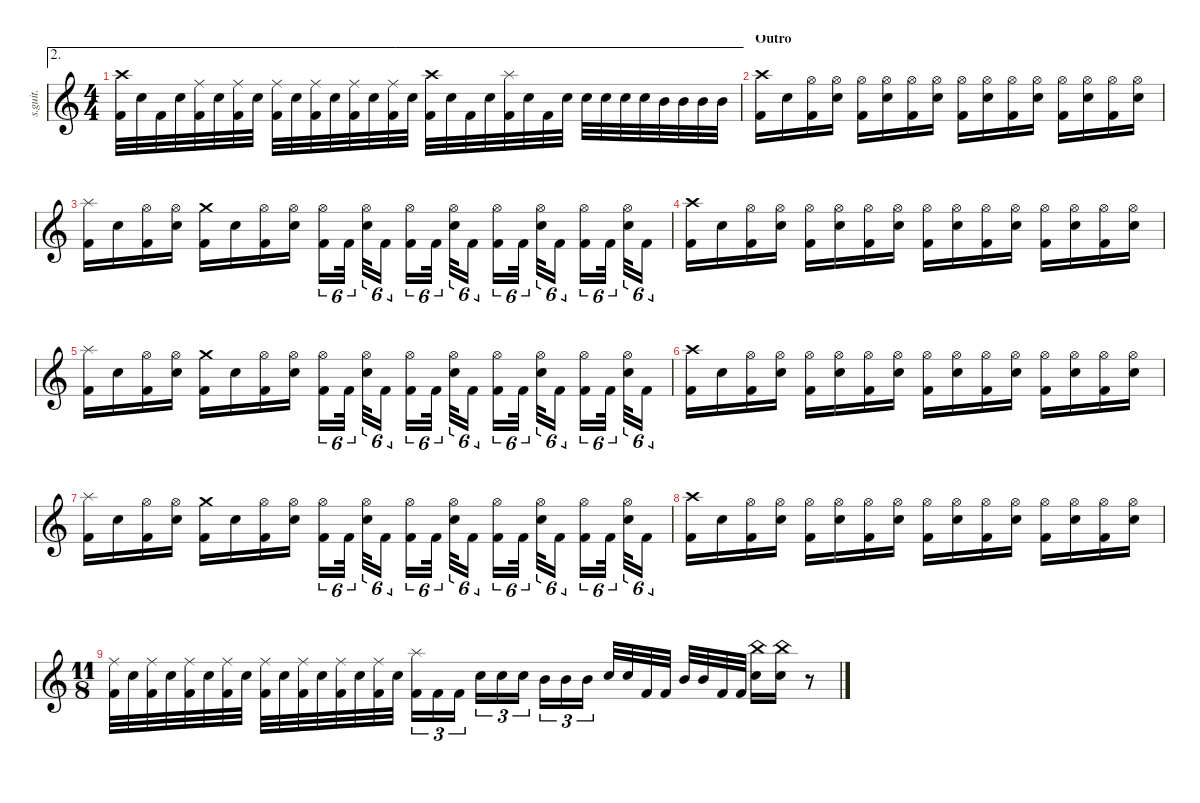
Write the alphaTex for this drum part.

\defaultSystemsLayout 4
\hideDynamics
\bracketExtendMode nobrackets
\track ("Percussion" "s.guit.") {instrument percussion}
\staff {score}
\articulation defaults
\ae 2
\ts (4 4)
\tempo (120 hide)
\clef g2
\ks c
("Kick (hit) 2" "Crash high (hit)").32{lyrics (0 "") lyrics (1 "") lyrics (2 "") lyrics (3 "") lyrics (4 "") dy f} "Snare (hit) 2".32{lyrics (0 "") lyrics (1 "") lyrics (2 "") lyrics (3 "") lyrics (4 "")} "Kick (hit) 2".32{lyrics (0 "") lyrics (1 "") lyrics (2 "") lyrics (3 "") lyrics (4 "")} "Snare (hit) 2".32{lyrics (0 "") lyrics (1 "") lyrics (2 "") lyrics (3 "") lyrics (4 "")} ("Ride (middle)" "Kick (hit) 2").32{lyrics (0 "") lyrics (1 "") lyrics (2 "") lyrics (3 "") lyrics (4 "")} "Snare (hit) 2".32{lyrics (0 "") lyrics (1 "") lyrics (2 "") lyrics (3 "") lyrics (4 "")} ("Ride (middle)" "Kick (hit) 2").32{lyrics (0 "") lyrics (1 "") lyrics (2 "") lyrics (3 "") lyrics (4 "")} "Snare (hit) 2".32{lyrics (0 "") lyrics (1 "") lyrics (2 "") lyrics (3 "") lyrics (4 "")} ("Ride (middle)" "Kick (hit) 2").32{lyrics (0 "") lyrics (1 "") lyrics (2 "") lyrics (3 "") lyrics (4 "")} "Snare (hit) 2".32{lyrics (0 "") lyrics (1 "") lyrics (2 "") lyrics (3 "") lyrics (4 "")} ("Ride (middle)" "Kick (hit) 2").32{lyrics (0 "") lyrics (1 "") lyrics (2 "") lyrics (3 "") lyrics (4 "")} "Snare (hit) 2".32{lyrics (0 "") lyrics (1 "") lyrics (2 "") lyrics (3 "") lyrics (4 "")} ("Ride (middle)" "Kick (hit) 2").32{lyrics (0 "") lyrics (1 "") lyrics (2 "") lyrics (3 "") lyrics (4 "")} "Snare (hit) 2".32{lyrics (0 "") lyrics (1 "") lyrics (2 "") lyrics (3 "") lyrics (4 "")} ("Ride (middle)" "Kick (hit) 2").32{lyrics (0 "") lyrics (1 "") lyrics (2 "") lyrics (3 "") lyrics (4 "")} "Snare (hit) 2".32{lyrics (0 "") lyrics (1 "") lyrics (2 "") lyrics (3 "") lyrics (4 "")} ("Kick (hit) 2" "Crash high (hit)").32{lyrics (0 "") lyrics (1 "") lyrics (2 "") lyrics (3 "") lyrics (4 "")} "Snare (hit) 2".32{lyrics (0 "") lyrics (1 "") lyrics (2 "") lyrics (3 "") lyrics (4 "")} "Kick (hit) 2".32{lyrics (0 "") lyrics (1 "") lyrics (2 "") lyrics (3 "") lyrics (4 "")} "Snare (hit) 2".32{lyrics (0 "") lyrics (1 "") lyrics (2 "") lyrics (3 "") lyrics (4 "")} ("Kick (hit) 2" "Splash (hit)").32{lyrics (0 "") lyrics (1 "") lyrics (2 "") lyrics (3 "") lyrics (4 "")} "Snare (hit) 2".32{lyrics (0 "") lyrics (1 "") lyrics (2 "") lyrics (3 "") lyrics (4 "")} "Kick (hit) 2".32{lyrics (0 "") lyrics (1 "") lyrics (2 "") lyrics (3 "") lyrics (4 "")} "Snare (hit) 2".32{lyrics (0 "") lyrics (1 "") lyrics (2 "") lyrics (3 "") lyrics (4 "")} "Snare (hit) 2".32{lyrics (0 "") lyrics (1 "") lyrics (2 "") lyrics (3 "") lyrics (4 "")} "Snare (hit) 2".32{lyrics (0 "") lyrics (1 "") lyrics (2 "") lyrics (3 "") lyrics (4 "")} "Snare (hit) 2".32{lyrics (0 "") lyrics (1 "") lyrics (2 "") lyrics (3 "") lyrics (4 "")} "Snare (hit) 2".32{lyrics (0 "") lyrics (1 "") lyrics (2 "") lyrics (3 "") lyrics (4 "")} "Mid Tom (hit)".32{lyrics (0 "") lyrics (1 "") lyrics (2 "") lyrics (3 "") lyrics (4 "")} "Mid Tom (hit)".32{lyrics (0 "") lyrics (1 "") lyrics (2 "") lyrics (3 "") lyrics (4 "")} "Mid Tom (hit)".32{lyrics (0 "") lyrics (1 "") lyrics (2 "") lyrics (3 "") lyrics (4 "")} "Mid Tom (hit)".32{lyrics (0 "") lyrics (1 "") lyrics (2 "") lyrics (3 "") lyrics (4 "")} |
\section ("" "Outro")
("Kick (hit) 2" "Crash high (hit)").16{lyrics (0 "") lyrics (1 "") lyrics (2 "") lyrics (3 "") lyrics (4 "")} "Snare (hit) 2".16{lyrics (0 "") lyrics (1 "") lyrics (2 "") lyrics (3 "") lyrics (4 "")} ("Hi-Hat (open)" "Kick (hit) 2").16{lyrics (0 "") lyrics (1 "") lyrics (2 "") lyrics (3 "") lyrics (4 "")} ("Hi-Hat (open)" "Snare (hit) 2").16{lyrics (0 "") lyrics (1 "") lyrics (2 "") lyrics (3 "") lyrics (4 "")} ("Hi-Hat (open)" "Kick (hit) 2").16{lyrics (0 "") lyrics (1 "") lyrics (2 "") lyrics (3 "") lyrics (4 "")} ("Hi-Hat (open)" "Snare (hit) 2").16{lyrics (0 "") lyrics (1 "") lyrics (2 "") lyrics (3 "") lyrics (4 "")} ("Hi-Hat (open)" "Kick (hit) 2").16{lyrics (0 "") lyrics (1 "") lyrics (2 "") lyrics (3 "") lyrics (4 "")} ("Hi-Hat (open)" "Snare (hit) 2").16{lyrics (0 "") lyrics (1 "") lyrics (2 "") lyrics (3 "") lyrics (4 "")} ("Hi-Hat (open)" "Kick (hit) 2").16{lyrics (0 "") lyrics (1 "") lyrics (2 "") lyrics (3 "") lyrics (4 "")} ("Hi-Hat (open)" "Snare (hit) 2").16{lyrics (0 "") lyrics (1 "") lyrics (2 "") lyrics (3 "") lyrics (4 "")} ("Hi-Hat (open)" "Kick (hit) 2").16{lyrics (0 "") lyrics (1 "") lyrics (2 "") lyrics (3 "") lyrics (4 "")} ("Hi-Hat (open)" "Snare (hit) 2").16{lyrics (0 "") lyrics (1 "") lyrics (2 "") lyrics (3 "") lyrics (4 "")} ("Hi-Hat (open)" "Kick (hit) 2").16{lyrics (0 "") lyrics (1 "") lyrics (2 "") lyrics (3 "") lyrics (4 "")} ("Hi-Hat (open)" "Snare (hit) 2").16{lyrics (0 "") lyrics (1 "") lyrics (2 "") lyrics (3 "") lyrics (4 "")} ("Hi-Hat (open)" "Kick (hit) 2").16{lyrics (0 "") lyrics (1 "") lyrics (2 "") lyrics (3 "") lyrics (4 "")} ("Hi-Hat (open)" "Snare (hit) 2").16{lyrics (0 "") lyrics (1 "") lyrics (2 "") lyrics (3 "") lyrics (4 "")} |
("Splash (hit)" "Kick (hit) 2").16{lyrics (0 "") lyrics (1 "") lyrics (2 "") lyrics (3 "") lyrics (4 "")} "Snare (hit) 2".16{lyrics (0 "") lyrics (1 "") lyrics (2 "") lyrics (3 "") lyrics (4 "")} ("Hi-Hat (open)" "Kick (hit) 2").16{lyrics (0 "") lyrics (1 "") lyrics (2 "") lyrics (3 "") lyrics (4 "")} ("Hi-Hat (open)" "Snare (hit) 2").16{lyrics (0 "") lyrics (1 "") lyrics (2 "") lyrics (3 "") lyrics (4 "")} ("Crash medium (hit)" "Kick (hit) 2").16{lyrics (0 "") lyrics (1 "") lyrics (2 "") lyrics (3 "") lyrics (4 "")} "Snare (hit) 2".16{lyrics (0 "") lyrics (1 "") lyrics (2 "") lyrics (3 "") lyrics (4 "")} ("Hi-Hat (open)" "Kick (hit) 2").16{lyrics (0 "") lyrics (1 "") lyrics (2 "") lyrics (3 "") lyrics (4 "")} ("Hi-Hat (open)" "Snare (hit) 2").16{lyrics (0 "") lyrics (1 "") lyrics (2 "") lyrics (3 "") lyrics (4 "")} ("Hi-Hat (open)" "Kick (hit) 2").16{tu (6 4) lyrics (0 "") lyrics (1 "") lyrics (2 "") lyrics (3 "") lyrics (4 "")} "Kick (hit) 2".32{tu (6 4) lyrics (0 "") lyrics (1 "") lyrics (2 "") lyrics (3 "") lyrics (4 "")} ("Hi-Hat (open)" "Snare (hit) 2").32{tu (6 4) lyrics (0 "") lyrics (1 "") lyrics (2 "") lyrics (3 "") lyrics (4 "")} "Kick (hit) 2".16{tu (6 4) lyrics (0 "") lyrics (1 "") lyrics (2 "") lyrics (3 "") lyrics (4 "")} ("Hi-Hat (open)" "Kick (hit) 2").16{tu (6 4) lyrics (0 "") lyrics (1 "") lyrics (2 "") lyrics (3 "") lyrics (4 "")} "Kick (hit) 2".32{tu (6 4) lyrics (0 "") lyrics (1 "") lyrics (2 "") lyrics (3 "") lyrics (4 "")} ("Hi-Hat (open)" "Snare (hit) 2").32{tu (6 4) lyrics (0 "") lyrics (1 "") lyrics (2 "") lyrics (3 "") lyrics (4 "")} "Kick (hit) 2".16{tu (6 4) lyrics (0 "") lyrics (1 "") lyrics (2 "") lyrics (3 "") lyrics (4 "")} ("Hi-Hat (open)" "Kick (hit) 2").16{tu (6 4) lyrics (0 "") lyrics (1 "") lyrics (2 "") lyrics (3 "") lyrics (4 "")} "Kick (hit) 2".32{tu (6 4) lyrics (0 "") lyrics (1 "") lyrics (2 "") lyrics (3 "") lyrics (4 "")} ("Hi-Hat (open)" "Snare (hit) 2").32{tu (6 4) lyrics (0 "") lyrics (1 "") lyrics (2 "") lyrics (3 "") lyrics (4 "")} "Kick (hit) 2".16{tu (6 4) lyrics (0 "") lyrics (1 "") lyrics (2 "") lyrics (3 "") lyrics (4 "")} ("Hi-Hat (open)" "Kick (hit) 2").16{tu (6 4) lyrics (0 "") lyrics (1 "") lyrics (2 "") lyrics (3 "") lyrics (4 "")} "Kick (hit) 2".32{tu (6 4) lyrics (0 "") lyrics (1 "") lyrics (2 "") lyrics (3 "") lyrics (4 "")} ("Hi-Hat (open)" "Snare (hit) 2").32{tu (6 4) lyrics (0 "") lyrics (1 "") lyrics (2 "") lyrics (3 "") lyrics (4 "")} "Kick (hit) 2".16{tu (6 4) lyrics (0 "") lyrics (1 "") lyrics (2 "") lyrics (3 "") lyrics (4 "")} |
("Kick (hit) 2" "Crash high (hit)").16{lyrics (0 "") lyrics (1 "") lyrics (2 "") lyrics (3 "") lyrics (4 "")} "Snare (hit) 2".16{lyrics (0 "") lyrics (1 "") lyrics (2 "") lyrics (3 "") lyrics (4 "")} ("Hi-Hat (open)" "Kick (hit) 2").16{lyrics (0 "") lyrics (1 "") lyrics (2 "") lyrics (3 "") lyrics (4 "")} ("Hi-Hat (open)" "Snare (hit) 2").16{lyrics (0 "") lyrics (1 "") lyrics (2 "") lyrics (3 "") lyrics (4 "")} ("Hi-Hat (open)" "Kick (hit) 2").16{lyrics (0 "") lyrics (1 "") lyrics (2 "") lyrics (3 "") lyrics (4 "")} ("Hi-Hat (open)" "Snare (hit) 2").16{lyrics (0 "") lyrics (1 "") lyrics (2 "") lyrics (3 "") lyrics (4 "")} ("Hi-Hat (open)" "Kick (hit) 2").16{lyrics (0 "") lyrics (1 "") lyrics (2 "") lyrics (3 "") lyrics (4 "")} ("Hi-Hat (open)" "Snare (hit) 2").16{lyrics (0 "") lyrics (1 "") lyrics (2 "") lyrics (3 "") lyrics (4 "")} ("Hi-Hat (open)" "Kick (hit) 2").16{lyrics (0 "") lyrics (1 "") lyrics (2 "") lyrics (3 "") lyrics (4 "")} ("Hi-Hat (open)" "Snare (hit) 2").16{lyrics (0 "") lyrics (1 "") lyrics (2 "") lyrics (3 "") lyrics (4 "")} ("Hi-Hat (open)" "Kick (hit) 2").16{lyrics (0 "") lyrics (1 "") lyrics (2 "") lyrics (3 "") lyrics (4 "")} ("Hi-Hat (open)" "Snare (hit) 2").16{lyrics (0 "") lyrics (1 "") lyrics (2 "") lyrics (3 "") lyrics (4 "")} ("Hi-Hat (open)" "Kick (hit) 2").16{lyrics (0 "") lyrics (1 "") lyrics (2 "") lyrics (3 "") lyrics (4 "")} ("Hi-Hat (open)" "Snare (hit) 2").16{lyrics (0 "") lyrics (1 "") lyrics (2 "") lyrics (3 "") lyrics (4 "")} ("Hi-Hat (open)" "Kick (hit) 2").16{lyrics (0 "") lyrics (1 "") lyrics (2 "") lyrics (3 "") lyrics (4 "")} ("Hi-Hat (open)" "Snare (hit) 2").16{lyrics (0 "") lyrics (1 "") lyrics (2 "") lyrics (3 "") lyrics (4 "")} |
("Splash (hit)" "Kick (hit) 2").16{lyrics (0 "") lyrics (1 "") lyrics (2 "") lyrics (3 "") lyrics (4 "")} "Snare (hit) 2".16{lyrics (0 "") lyrics (1 "") lyrics (2 "") lyrics (3 "") lyrics (4 "")} ("Hi-Hat (open)" "Kick (hit) 2").16{lyrics (0 "") lyrics (1 "") lyrics (2 "") lyrics (3 "") lyrics (4 "")} ("Hi-Hat (open)" "Snare (hit) 2").16{lyrics (0 "") lyrics (1 "") lyrics (2 "") lyrics (3 "") lyrics (4 "")} ("Crash medium (hit)" "Kick (hit) 2").16{lyrics (0 "") lyrics (1 "") lyrics (2 "") lyrics (3 "") lyrics (4 "")} "Snare (hit) 2".16{lyrics (0 "") lyrics (1 "") lyrics (2 "") lyrics (3 "") lyrics (4 "")} ("Hi-Hat (open)" "Kick (hit) 2").16{lyrics (0 "") lyrics (1 "") lyrics (2 "") lyrics (3 "") lyrics (4 "")} ("Hi-Hat (open)" "Snare (hit) 2").16{lyrics (0 "") lyrics (1 "") lyrics (2 "") lyrics (3 "") lyrics (4 "")} ("Hi-Hat (open)" "Kick (hit) 2").16{tu (6 4) lyrics (0 "") lyrics (1 "") lyrics (2 "") lyrics (3 "") lyrics (4 "")} "Kick (hit) 2".32{tu (6 4) lyrics (0 "") lyrics (1 "") lyrics (2 "") lyrics (3 "") lyrics (4 "")} ("Hi-Hat (open)" "Snare (hit) 2").32{tu (6 4) lyrics (0 "") lyrics (1 "") lyrics (2 "") lyrics (3 "") lyrics (4 "")} "Kick (hit) 2".16{tu (6 4) lyrics (0 "") lyrics (1 "") lyrics (2 "") lyrics (3 "") lyrics (4 "")} ("Hi-Hat (open)" "Kick (hit) 2").16{tu (6 4) lyrics (0 "") lyrics (1 "") lyrics (2 "") lyrics (3 "") lyrics (4 "")} "Kick (hit) 2".32{tu (6 4) lyrics (0 "") lyrics (1 "") lyrics (2 "") lyrics (3 "") lyrics (4 "")} ("Hi-Hat (open)" "Snare (hit) 2").32{tu (6 4) lyrics (0 "") lyrics (1 "") lyrics (2 "") lyrics (3 "") lyrics (4 "")} "Kick (hit) 2".16{tu (6 4) lyrics (0 "") lyrics (1 "") lyrics (2 "") lyrics (3 "") lyrics (4 "")} ("Hi-Hat (open)" "Kick (hit) 2").16{tu (6 4) lyrics (0 "") lyrics (1 "") lyrics (2 "") lyrics (3 "") lyrics (4 "")} "Kick (hit) 2".32{tu (6 4) lyrics (0 "") lyrics (1 "") lyrics (2 "") lyrics (3 "") lyrics (4 "")} ("Hi-Hat (open)" "Snare (hit) 2").32{tu (6 4) lyrics (0 "") lyrics (1 "") lyrics (2 "") lyrics (3 "") lyrics (4 "")} "Kick (hit) 2".16{tu (6 4) lyrics (0 "") lyrics (1 "") lyrics (2 "") lyrics (3 "") lyrics (4 "")} ("Hi-Hat (open)" "Kick (hit) 2").16{tu (6 4) lyrics (0 "") lyrics (1 "") lyrics (2 "") lyrics (3 "") lyrics (4 "")} "Kick (hit) 2".32{tu (6 4) lyrics (0 "") lyrics (1 "") lyrics (2 "") lyrics (3 "") lyrics (4 "")} ("Hi-Hat (open)" "Snare (hit) 2").32{tu (6 4) lyrics (0 "") lyrics (1 "") lyrics (2 "") lyrics (3 "") lyrics (4 "")} "Kick (hit) 2".16{tu (6 4) lyrics (0 "") lyrics (1 "") lyrics (2 "") lyrics (3 "") lyrics (4 "")} |
("Kick (hit) 2" "Crash high (hit)").16{lyrics (0 "") lyrics (1 "") lyrics (2 "") lyrics (3 "") lyrics (4 "")} "Snare (hit) 2".16{lyrics (0 "") lyrics (1 "") lyrics (2 "") lyrics (3 "") lyrics (4 "")} ("Hi-Hat (open)" "Kick (hit) 2").16{lyrics (0 "") lyrics (1 "") lyrics (2 "") lyrics (3 "") lyrics (4 "")} ("Hi-Hat (open)" "Snare (hit) 2").16{lyrics (0 "") lyrics (1 "") lyrics (2 "") lyrics (3 "") lyrics (4 "")} ("Hi-Hat (open)" "Kick (hit) 2").16{lyrics (0 "") lyrics (1 "") lyrics (2 "") lyrics (3 "") lyrics (4 "")} ("Hi-Hat (open)" "Snare (hit) 2").16{lyrics (0 "") lyrics (1 "") lyrics (2 "") lyrics (3 "") lyrics (4 "")} ("Hi-Hat (open)" "Kick (hit) 2").16{lyrics (0 "") lyrics (1 "") lyrics (2 "") lyrics (3 "") lyrics (4 "")} ("Hi-Hat (open)" "Snare (hit) 2").16{lyrics (0 "") lyrics (1 "") lyrics (2 "") lyrics (3 "") lyrics (4 "")} ("Hi-Hat (open)" "Kick (hit) 2").16{lyrics (0 "") lyrics (1 "") lyrics (2 "") lyrics (3 "") lyrics (4 "")} ("Hi-Hat (open)" "Snare (hit) 2").16{lyrics (0 "") lyrics (1 "") lyrics (2 "") lyrics (3 "") lyrics (4 "")} ("Hi-Hat (open)" "Kick (hit) 2").16{lyrics (0 "") lyrics (1 "") lyrics (2 "") lyrics (3 "") lyrics (4 "")} ("Hi-Hat (open)" "Snare (hit) 2").16{lyrics (0 "") lyrics (1 "") lyrics (2 "") lyrics (3 "") lyrics (4 "")} ("Hi-Hat (open)" "Kick (hit) 2").16{lyrics (0 "") lyrics (1 "") lyrics (2 "") lyrics (3 "") lyrics (4 "")} ("Hi-Hat (open)" "Snare (hit) 2").16{lyrics (0 "") lyrics (1 "") lyrics (2 "") lyrics (3 "") lyrics (4 "")} ("Hi-Hat (open)" "Kick (hit) 2").16{lyrics (0 "") lyrics (1 "") lyrics (2 "") lyrics (3 "") lyrics (4 "")} ("Hi-Hat (open)" "Snare (hit) 2").16{lyrics (0 "") lyrics (1 "") lyrics (2 "") lyrics (3 "") lyrics (4 "")} |
("Splash (hit)" "Kick (hit) 2").16{lyrics (0 "") lyrics (1 "") lyrics (2 "") lyrics (3 "") lyrics (4 "")} "Snare (hit) 2".16{lyrics (0 "") lyrics (1 "") lyrics (2 "") lyrics (3 "") lyrics (4 "")} ("Hi-Hat (open)" "Kick (hit) 2").16{lyrics (0 "") lyrics (1 "") lyrics (2 "") lyrics (3 "") lyrics (4 "")} ("Hi-Hat (open)" "Snare (hit) 2").16{lyrics (0 "") lyrics (1 "") lyrics (2 "") lyrics (3 "") lyrics (4 "")} ("Crash medium (hit)" "Kick (hit) 2").16{lyrics (0 "") lyrics (1 "") lyrics (2 "") lyrics (3 "") lyrics (4 "")} "Snare (hit) 2".16{lyrics (0 "") lyrics (1 "") lyrics (2 "") lyrics (3 "") lyrics (4 "")} ("Hi-Hat (open)" "Kick (hit) 2").16{lyrics (0 "") lyrics (1 "") lyrics (2 "") lyrics (3 "") lyrics (4 "")} ("Hi-Hat (open)" "Snare (hit) 2").16{lyrics (0 "") lyrics (1 "") lyrics (2 "") lyrics (3 "") lyrics (4 "")} ("Hi-Hat (open)" "Kick (hit) 2").16{tu (6 4) lyrics (0 "") lyrics (1 "") lyrics (2 "") lyrics (3 "") lyrics (4 "")} "Kick (hit) 2".32{tu (6 4) lyrics (0 "") lyrics (1 "") lyrics (2 "") lyrics (3 "") lyrics (4 "")} ("Hi-Hat (open)" "Snare (hit) 2").32{tu (6 4) lyrics (0 "") lyrics (1 "") lyrics (2 "") lyrics (3 "") lyrics (4 "")} "Kick (hit) 2".16{tu (6 4) lyrics (0 "") lyrics (1 "") lyrics (2 "") lyrics (3 "") lyrics (4 "")} ("Hi-Hat (open)" "Kick (hit) 2").16{tu (6 4) lyrics (0 "") lyrics (1 "") lyrics (2 "") lyrics (3 "") lyrics (4 "")} "Kick (hit) 2".32{tu (6 4) lyrics (0 "") lyrics (1 "") lyrics (2 "") lyrics (3 "") lyrics (4 "")} ("Hi-Hat (open)" "Snare (hit) 2").32{tu (6 4) lyrics (0 "") lyrics (1 "") lyrics (2 "") lyrics (3 "") lyrics (4 "")} "Kick (hit) 2".16{tu (6 4) lyrics (0 "") lyrics (1 "") lyrics (2 "") lyrics (3 "") lyrics (4 "")} ("Hi-Hat (open)" "Kick (hit) 2").16{tu (6 4) lyrics (0 "") lyrics (1 "") lyrics (2 "") lyrics (3 "") lyrics (4 "")} "Kick (hit) 2".32{tu (6 4) lyrics (0 "") lyrics (1 "") lyrics (2 "") lyrics (3 "") lyrics (4 "")} ("Hi-Hat (open)" "Snare (hit) 2").32{tu (6 4) lyrics (0 "") lyrics (1 "") lyrics (2 "") lyrics (3 "") lyrics (4 "")} "Kick (hit) 2".16{tu (6 4) lyrics (0 "") lyrics (1 "") lyrics (2 "") lyrics (3 "") lyrics (4 "")} ("Hi-Hat (open)" "Kick (hit) 2").16{tu (6 4) lyrics (0 "") lyrics (1 "") lyrics (2 "") lyrics (3 "") lyrics (4 "")} "Kick (hit) 2".32{tu (6 4) lyrics (0 "") lyrics (1 "") lyrics (2 "") lyrics (3 "") lyrics (4 "")} ("Hi-Hat (open)" "Snare (hit) 2").32{tu (6 4) lyrics (0 "") lyrics (1 "") lyrics (2 "") lyrics (3 "") lyrics (4 "")} "Kick (hit) 2".16{tu (6 4) lyrics (0 "") lyrics (1 "") lyrics (2 "") lyrics (3 "") lyrics (4 "")} |
("Kick (hit) 2" "Crash high (hit)").16{lyrics (0 "") lyrics (1 "") lyrics (2 "") lyrics (3 "") lyrics (4 "")} "Snare (hit) 2".16{lyrics (0 "") lyrics (1 "") lyrics (2 "") lyrics (3 "") lyrics (4 "")} ("Hi-Hat (open)" "Kick (hit) 2").16{lyrics (0 "") lyrics (1 "") lyrics (2 "") lyrics (3 "") lyrics (4 "")} ("Hi-Hat (open)" "Snare (hit) 2").16{lyrics (0 "") lyrics (1 "") lyrics (2 "") lyrics (3 "") lyrics (4 "")} ("Hi-Hat (open)" "Kick (hit) 2").16{lyrics (0 "") lyrics (1 "") lyrics (2 "") lyrics (3 "") lyrics (4 "")} ("Hi-Hat (open)" "Snare (hit) 2").16{lyrics (0 "") lyrics (1 "") lyrics (2 "") lyrics (3 "") lyrics (4 "")} ("Hi-Hat (open)" "Kick (hit) 2").16{lyrics (0 "") lyrics (1 "") lyrics (2 "") lyrics (3 "") lyrics (4 "")} ("Hi-Hat (open)" "Snare (hit) 2").16{lyrics (0 "") lyrics (1 "") lyrics (2 "") lyrics (3 "") lyrics (4 "")} ("Hi-Hat (open)" "Kick (hit) 2").16{lyrics (0 "") lyrics (1 "") lyrics (2 "") lyrics (3 "") lyrics (4 "")} ("Hi-Hat (open)" "Snare (hit) 2").16{lyrics (0 "") lyrics (1 "") lyrics (2 "") lyrics (3 "") lyrics (4 "")} ("Hi-Hat (open)" "Kick (hit) 2").16{lyrics (0 "") lyrics (1 "") lyrics (2 "") lyrics (3 "") lyrics (4 "")} ("Hi-Hat (open)" "Snare (hit) 2").16{lyrics (0 "") lyrics (1 "") lyrics (2 "") lyrics (3 "") lyrics (4 "")} ("Hi-Hat (open)" "Kick (hit) 2").16{lyrics (0 "") lyrics (1 "") lyrics (2 "") lyrics (3 "") lyrics (4 "")} ("Hi-Hat (open)" "Snare (hit) 2").16{lyrics (0 "") lyrics (1 "") lyrics (2 "") lyrics (3 "") lyrics (4 "")} ("Hi-Hat (open)" "Kick (hit) 2").16{lyrics (0 "") lyrics (1 "") lyrics (2 "") lyrics (3 "") lyrics (4 "")} ("Hi-Hat (open)" "Snare (hit) 2").16{lyrics (0 "") lyrics (1 "") lyrics (2 "") lyrics (3 "") lyrics (4 "")} |
\ts (11 8)
\beaming (8 2 2 2 2)
("Ride (middle)" "Kick (hit) 2").32{lyrics (0 "") lyrics (1 "") lyrics (2 "") lyrics (3 "") lyrics (4 "")} "Snare (hit) 2".32{lyrics (0 "") lyrics (1 "") lyrics (2 "") lyrics (3 "") lyrics (4 "")} ("Ride (middle)" "Kick (hit) 2").32{lyrics (0 "") lyrics (1 "") lyrics (2 "") lyrics (3 "") lyrics (4 "")} "Snare (hit) 2".32{lyrics (0 "") lyrics (1 "") lyrics (2 "") lyrics (3 "") lyrics (4 "")} ("Ride (middle)" "Kick (hit) 2").32{lyrics (0 "") lyrics (1 "") lyrics (2 "") lyrics (3 "") lyrics (4 "")} "Snare (hit) 2".32{lyrics (0 "") lyrics (1 "") lyrics (2 "") lyrics (3 "") lyrics (4 "")} ("Ride (middle)" "Kick (hit) 2").32{lyrics (0 "") lyrics (1 "") lyrics (2 "") lyrics (3 "") lyrics (4 "")} "Snare (hit) 2".32{lyrics (0 "") lyrics (1 "") lyrics (2 "") lyrics (3 "") lyrics (4 "")} ("Ride (middle)" "Kick (hit) 2").32{lyrics (0 "") lyrics (1 "") lyrics (2 "") lyrics (3 "") lyrics (4 "")} "Snare (hit) 2".32{lyrics (0 "") lyrics (1 "") lyrics (2 "") lyrics (3 "") lyrics (4 "")} ("Ride (middle)" "Kick (hit) 2").32{lyrics (0 "") lyrics (1 "") lyrics (2 "") lyrics (3 "") lyrics (4 "")} "Snare (hit) 2".32{lyrics (0 "") lyrics (1 "") lyrics (2 "") lyrics (3 "") lyrics (4 "")} ("Ride (middle)" "Kick (hit) 2").32{lyrics (0 "") lyrics (1 "") lyrics (2 "") lyrics (3 "") lyrics (4 "")} "Snare (hit) 2".32{lyrics (0 "") lyrics (1 "") lyrics (2 "") lyrics (3 "") lyrics (4 "")} ("Ride (middle)" "Kick (hit) 2").32{lyrics (0 "") lyrics (1 "") lyrics (2 "") lyrics (3 "") lyrics (4 "")} "Snare (hit) 2".32{lyrics (0 "") lyrics (1 "") lyrics (2 "") lyrics (3 "") lyrics (4 "")} ("Splash (hit)" "Kick (hit) 2").16{tu (3 2) lyrics (0 "") lyrics (1 "") lyrics (2 "") lyrics (3 "") lyrics (4 "")} "Kick (hit) 2".16{tu (3 2) lyrics (0 "") lyrics (1 "") lyrics (2 "") lyrics (3 "") lyrics (4 "")} "Kick (hit) 2".16{tu (3 2) lyrics (0 "") lyrics (1 "") lyrics (2 "") lyrics (3 "") lyrics (4 "")} "Snare (hit) 2".16{tu (3 2) lyrics (0 "") lyrics (1 "") lyrics (2 "") lyrics (3 "") lyrics (4 "")} "Snare (hit) 2".16{tu (3 2) lyrics (0 "") lyrics (1 "") lyrics (2 "") lyrics (3 "") lyrics (4 "")} "Snare (hit) 2".16{tu (3 2) lyrics (0 "") lyrics (1 "") lyrics (2 "") lyrics (3 "") lyrics (4 "")} "Mid Tom (hit)".16{tu (3 2) lyrics (0 "") lyrics (1 "") lyrics (2 "") lyrics (3 "") lyrics (4 "")} "Mid Tom (hit)".16{tu (3 2) lyrics (0 "") lyrics (1 "") lyrics (2 "") lyrics (3 "") lyrics (4 "")} "Mid Tom (hit)".16{tu (3 2) lyrics (0 "") lyrics (1 "") lyrics (2 "") lyrics (3 "") lyrics (4 "")} "Snare (hit) 2".32{lyrics (0 "") lyrics (1 "") lyrics (2 "") lyrics (3 "") lyrics (4 "")} "Snare (hit) 2".32{lyrics (0 "") lyrics (1 "") lyrics (2 "") lyrics (3 "") lyrics (4 "")} "Kick (hit) 2".32{lyrics (0 "") lyrics (1 "") lyrics (2 "") lyrics (3 "") lyrics (4 "")} "Kick (hit) 2".32{lyrics (0 "") lyrics (1 "") lyrics (2 "") lyrics (3 "") lyrics (4 "")} "Mid Tom (hit)".32{lyrics (0 "") lyrics (1 "") lyrics (2 "") lyrics (3 "") lyrics (4 "")} "Mid Tom (hit)".32{lyrics (0 "") lyrics (1 "") lyrics (2 "") lyrics (3 "") lyrics (4 "")} "Kick (hit) 2".32{lyrics (0 "") lyrics (1 "") lyrics (2 "") lyrics (3 "") lyrics (4 "")} "Kick (hit) 2".32{lyrics (0 "") lyrics (1 "") lyrics (2 "") lyrics (3 "") lyrics (4 "")} ("China (hit)" "Snare (hit) 2").16{lyrics (0 "") lyrics (1 "") lyrics (2 "") lyrics (3 "") lyrics (4 "")} ("China (hit)" "Snare (hit) 2").16{lyrics (0 "") lyrics (1 "") lyrics (2 "") lyrics (3 "") lyrics (4 "")} r.8
